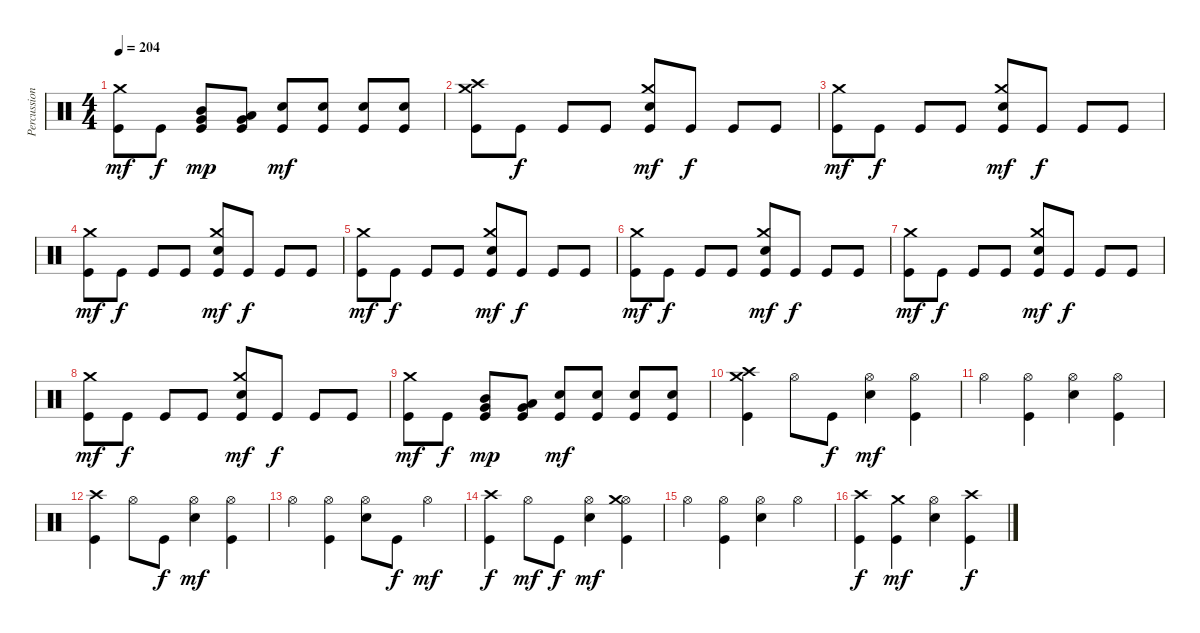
\track ("Percussions" "Percussion") {instrument percussion}
\staff {score}
\articulation defaults
\ts (4 4)
\tempo 204
\clef neutral
\ks c
("Kick (hit)" "Crash medium (hit)").8{dy mf} "Kick (hit)".8{dy f} ("Kick (hit)" "Very Low Tom (hit)" "Mid Tom (hit)").8{dy mp} ("Kick (hit)" "Very Low Tom (hit)" "Low Tom (hit)").8 ("Kick (hit)" "Electric Snare (hit)").8{dy mf} ("Kick (hit)" "Electric Snare (hit)").8 ("Kick (hit)" "Electric Snare (hit)").8 ("Kick (hit)" "Electric Snare (hit)").8 |
("Kick (hit)" "Crash medium (hit)" "Crash high (hit)").8 "Kick (hit)".8{dy f} "Kick (hit)".8 "Kick (hit)".8 ("Kick (hit)" "Electric Snare (hit)" "Crash medium (hit)").8{dy mf} "Kick (hit)".8{dy f} "Kick (hit)".8 "Kick (hit)".8 |
("Kick (hit)" "Crash medium (hit)").8{dy mf} "Kick (hit)".8{dy f} "Kick (hit)".8 "Kick (hit)".8 ("Kick (hit)" "Electric Snare (hit)" "Crash medium (hit)").8{dy mf} "Kick (hit)".8{dy f} "Kick (hit)".8 "Kick (hit)".8 |
("Kick (hit)" "Crash medium (hit)").8{dy mf} "Kick (hit)".8{dy f} "Kick (hit)".8 "Kick (hit)".8 ("Kick (hit)" "Electric Snare (hit)" "Crash medium (hit)").8{dy mf} "Kick (hit)".8{dy f} "Kick (hit)".8 "Kick (hit)".8 |
("Kick (hit)" "Crash medium (hit)").8{dy mf} "Kick (hit)".8{dy f} "Kick (hit)".8 "Kick (hit)".8 ("Kick (hit)" "Electric Snare (hit)" "Crash medium (hit)").8{dy mf} "Kick (hit)".8{dy f} "Kick (hit)".8 "Kick (hit)".8 |
("Kick (hit)" "Crash medium (hit)").8{dy mf} "Kick (hit)".8{dy f} "Kick (hit)".8 "Kick (hit)".8 ("Kick (hit)" "Electric Snare (hit)" "Crash medium (hit)").8{dy mf} "Kick (hit)".8{dy f} "Kick (hit)".8 "Kick (hit)".8 |
("Kick (hit)" "Crash medium (hit)").8{dy mf} "Kick (hit)".8{dy f} "Kick (hit)".8 "Kick (hit)".8 ("Kick (hit)" "Electric Snare (hit)" "Crash medium (hit)").8{dy mf} "Kick (hit)".8{dy f} "Kick (hit)".8 "Kick (hit)".8 |
("Kick (hit)" "Crash medium (hit)").8{dy mf} "Kick (hit)".8{dy f} "Kick (hit)".8 "Kick (hit)".8 ("Kick (hit)" "Electric Snare (hit)" "Crash medium (hit)").8{dy mf} "Kick (hit)".8{dy f} "Kick (hit)".8 "Kick (hit)".8 |
("Kick (hit)" "Crash medium (hit)").8{dy mf} "Kick (hit)".8{dy f} ("Kick (hit)" "Very Low Tom (hit)" "Mid Tom (hit)").8{dy mp} ("Kick (hit)" "Very Low Tom (hit)" "Low Tom (hit)").8 ("Kick (hit)" "Electric Snare (hit)").8{dy mf} ("Kick (hit)" "Electric Snare (hit)").8 ("Kick (hit)" "Electric Snare (hit)").8 ("Kick (hit)" "Electric Snare (hit)").8 |
("Kick (hit)" "Crash high (hit)" "Crash medium (hit)").4 "Hi-Hat (open)".8 "Kick (hit)".8{dy f} ("Electric Snare (hit)" "Hi-Hat (open)").4{dy mf} ("Kick (hit)" "Hi-Hat (open)").4 |
"Hi-Hat (open)".4 ("Kick (hit)" "Hi-Hat (open)").4 ("Electric Snare (hit)" "Hi-Hat (open)").4 ("Kick (hit)" "Hi-Hat (open)").4 |
("Kick (hit)" "Crash high (hit)").4 "Hi-Hat (open)".8 "Kick (hit)".8{dy f} ("Electric Snare (hit)" "Hi-Hat (open)").4{dy mf} ("Kick (hit)" "Hi-Hat (open)").4 |
"Hi-Hat (open)".4 ("Kick (hit)" "Hi-Hat (open)").4 ("Electric Snare (hit)" "Hi-Hat (open)").8 "Kick (hit)".8{dy f} "Hi-Hat (open)".4{dy mf} |
("Kick (hit)" "Crash high (hit)").4{dy f} "Hi-Hat (open)".8{dy mf} "Kick (hit)".8{dy f} ("Electric Snare (hit)" "Hi-Hat (open)").4{dy mf} ("Kick (hit)" "Hi-Hat (open)" "Crash medium (hit)").4 |
"Hi-Hat (open)".4 ("Kick (hit)" "Hi-Hat (open)").4 ("Electric Snare (hit)" "Hi-Hat (open)").4 "Hi-Hat (open)".4 |
("Kick (hit)" "Crash high (hit)").4{dy f} ("Kick (hit)" "Crash medium (hit)").4{dy mf} ("Electric Snare (hit)" "Hi-Hat (open)").4 ("Kick (hit)" "Crash high (hit)").4{dy f}
